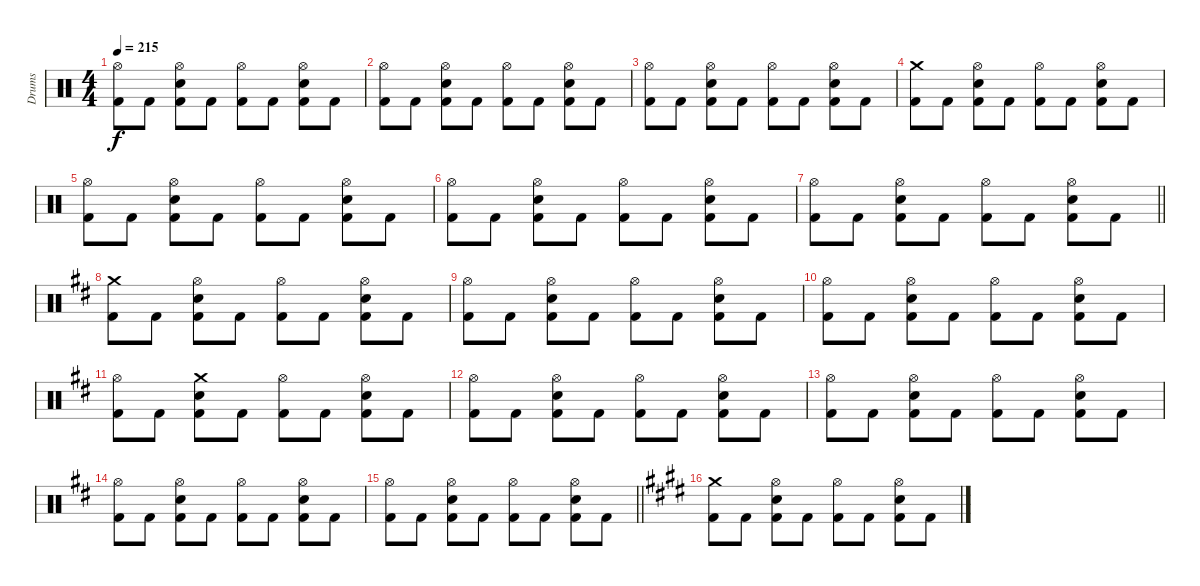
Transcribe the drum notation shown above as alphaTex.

\track ("Drums" "Drums") {instrument percussion}
\staff {score}
\articulation defaults
\ts (4 4)
\tempo 215
\clef neutral
\ks c
("Hi-Hat (open)" "Kick (hit) 2").8{dy f} "Kick (hit) 2".8 ("Hi-Hat (open)" "Snare (hit) 2" "Kick (hit) 2").8 "Kick (hit) 2".8 ("Hi-Hat (open)" "Kick (hit) 2").8 "Kick (hit) 2".8 ("Hi-Hat (open)" "Snare (hit) 2" "Kick (hit) 2").8 "Kick (hit) 2".8 |
("Hi-Hat (open)" "Kick (hit) 2").8 "Kick (hit) 2".8 ("Hi-Hat (open)" "Snare (hit) 2" "Kick (hit) 2").8 "Kick (hit) 2".8 ("Hi-Hat (open)" "Kick (hit) 2").8 "Kick (hit) 2".8 ("Hi-Hat (open)" "Snare (hit) 2" "Kick (hit) 2").8 "Kick (hit) 2".8 |
("Hi-Hat (open)" "Kick (hit) 2").8 "Kick (hit) 2".8 ("Hi-Hat (open)" "Snare (hit) 2" "Kick (hit) 2").8 "Kick (hit) 2".8 ("Hi-Hat (open)" "Kick (hit) 2").8 "Kick (hit) 2".8 ("Hi-Hat (open)" "Snare (hit) 2" "Kick (hit) 2").8 "Kick (hit) 2".8 |
("Crash medium (hit)" "Kick (hit) 2").8 "Kick (hit) 2".8 ("Hi-Hat (open)" "Snare (hit) 2" "Kick (hit) 2").8 "Kick (hit) 2".8 ("Hi-Hat (open)" "Kick (hit) 2").8 "Kick (hit) 2".8 ("Hi-Hat (open)" "Snare (hit) 2" "Kick (hit) 2").8 "Kick (hit) 2".8 |
("Hi-Hat (open)" "Kick (hit) 2").8 "Kick (hit) 2".8 ("Hi-Hat (open)" "Snare (hit) 2" "Kick (hit) 2").8 "Kick (hit) 2".8 ("Hi-Hat (open)" "Kick (hit) 2").8 "Kick (hit) 2".8 ("Hi-Hat (open)" "Snare (hit) 2" "Kick (hit) 2").8 "Kick (hit) 2".8 |
("Hi-Hat (open)" "Kick (hit) 2").8 "Kick (hit) 2".8 ("Hi-Hat (open)" "Snare (hit) 2" "Kick (hit) 2").8 "Kick (hit) 2".8 ("Hi-Hat (open)" "Kick (hit) 2").8 "Kick (hit) 2".8 ("Hi-Hat (open)" "Snare (hit) 2" "Kick (hit) 2").8 "Kick (hit) 2".8 |
\barLineRight lightlight
("Hi-Hat (open)" "Kick (hit) 2").8 "Kick (hit) 2".8 ("Hi-Hat (open)" "Snare (hit) 2" "Kick (hit) 2").8 "Kick (hit) 2".8 ("Hi-Hat (open)" "Kick (hit) 2").8 "Kick (hit) 2".8 ("Hi-Hat (open)" "Snare (hit) 2" "Kick (hit) 2").8 "Kick (hit) 2".8 |
\section ("" "")
\ks d
("Crash medium (hit)" "Kick (hit) 2").8 "Kick (hit) 2".8 ("Hi-Hat (open)" "Snare (hit) 2" "Kick (hit) 2").8 "Kick (hit) 2".8 ("Hi-Hat (open)" "Kick (hit) 2").8 "Kick (hit) 2".8 ("Hi-Hat (open)" "Snare (hit) 2" "Kick (hit) 2").8 "Kick (hit) 2".8 |
("Hi-Hat (open)" "Kick (hit) 2").8 "Kick (hit) 2".8 ("Hi-Hat (open)" "Snare (hit) 2" "Kick (hit) 2").8 "Kick (hit) 2".8 ("Hi-Hat (open)" "Kick (hit) 2").8 "Kick (hit) 2".8 ("Hi-Hat (open)" "Snare (hit) 2" "Kick (hit) 2").8 "Kick (hit) 2".8 |
("Hi-Hat (open)" "Kick (hit) 2").8 "Kick (hit) 2".8 ("Hi-Hat (open)" "Snare (hit) 2" "Kick (hit) 2").8 "Kick (hit) 2".8 ("Hi-Hat (open)" "Kick (hit) 2").8 "Kick (hit) 2".8 ("Hi-Hat (open)" "Snare (hit) 2" "Kick (hit) 2").8 "Kick (hit) 2".8 |
("Hi-Hat (open)" "Kick (hit) 2").8 "Kick (hit) 2".8 ("Crash medium (hit)" "Snare (hit) 2" "Kick (hit) 2").8 "Kick (hit) 2".8 ("Hi-Hat (open)" "Kick (hit) 2").8 "Kick (hit) 2".8 ("Hi-Hat (open)" "Snare (hit) 2" "Kick (hit) 2").8 "Kick (hit) 2".8 |
("Hi-Hat (open)" "Kick (hit) 2").8 "Kick (hit) 2".8 ("Hi-Hat (open)" "Snare (hit) 2" "Kick (hit) 2").8 "Kick (hit) 2".8 ("Hi-Hat (open)" "Kick (hit) 2").8 "Kick (hit) 2".8 ("Hi-Hat (open)" "Snare (hit) 2" "Kick (hit) 2").8 "Kick (hit) 2".8 |
("Hi-Hat (open)" "Kick (hit) 2").8 "Kick (hit) 2".8 ("Hi-Hat (open)" "Snare (hit) 2" "Kick (hit) 2").8 "Kick (hit) 2".8 ("Hi-Hat (open)" "Kick (hit) 2").8 "Kick (hit) 2".8 ("Hi-Hat (open)" "Snare (hit) 2" "Kick (hit) 2").8 "Kick (hit) 2".8 |
("Hi-Hat (open)" "Kick (hit) 2").8 "Kick (hit) 2".8 ("Hi-Hat (open)" "Snare (hit) 2" "Kick (hit) 2").8 "Kick (hit) 2".8 ("Hi-Hat (open)" "Kick (hit) 2").8 "Kick (hit) 2".8 ("Hi-Hat (open)" "Snare (hit) 2" "Kick (hit) 2").8 "Kick (hit) 2".8 |
\barLineRight lightlight
("Hi-Hat (open)" "Kick (hit) 2").8 "Kick (hit) 2".8 ("Hi-Hat (open)" "Snare (hit) 2" "Kick (hit) 2").8 "Kick (hit) 2".8 ("Hi-Hat (open)" "Kick (hit) 2").8 "Kick (hit) 2".8 ("Hi-Hat (open)" "Snare (hit) 2" "Kick (hit) 2").8 "Kick (hit) 2".8 |
\section ("" "")
\ks e
("Crash medium (hit)" "Kick (hit) 2").8 "Kick (hit) 2".8 ("Hi-Hat (open)" "Snare (hit) 2" "Kick (hit) 2").8 "Kick (hit) 2".8 ("Hi-Hat (open)" "Kick (hit) 2").8 "Kick (hit) 2".8 ("Hi-Hat (open)" "Snare (hit) 2" "Kick (hit) 2").8 "Kick (hit) 2".8
